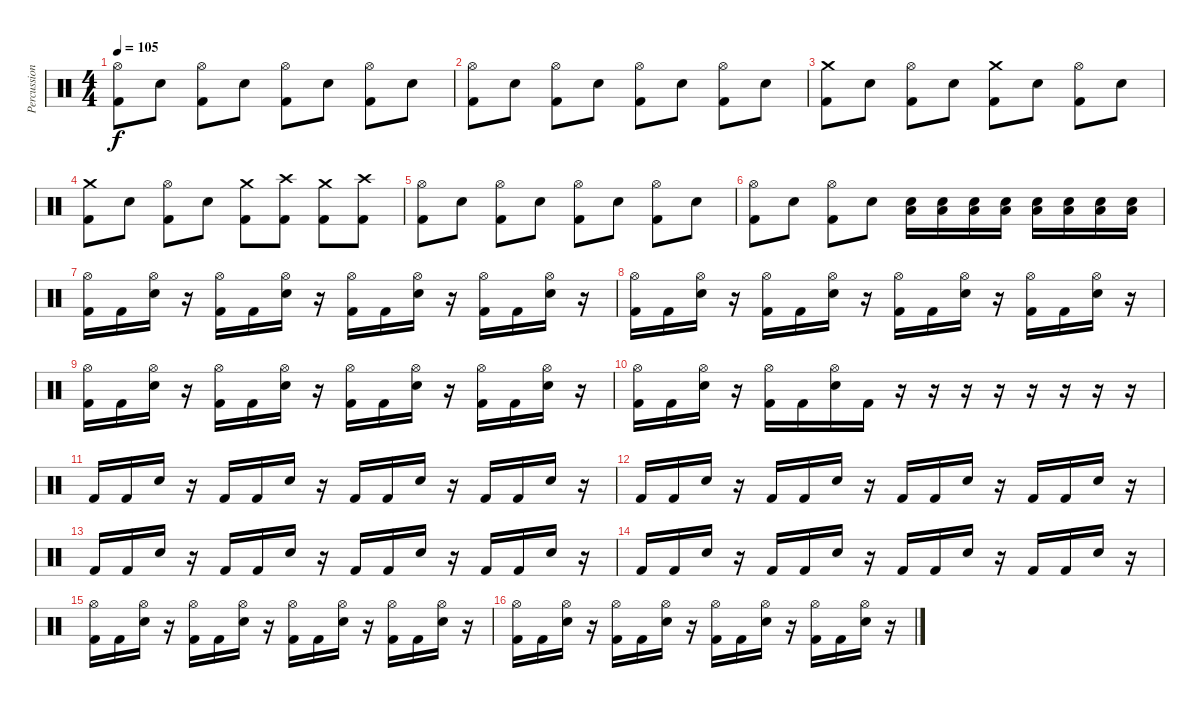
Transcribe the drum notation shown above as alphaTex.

\track ("Percussion" "Percussion") {instrument percussion}
\staff {score}
\articulation defaults
\ts (4 4)
\tempo 105
\clef neutral
\ks c
("Hi-Hat (open)" "Kick (hit) 2").8{dy f} "Snare (hit) 2".8 ("Hi-Hat (open)" "Kick (hit) 2").8 "Snare (hit) 2".8 ("Hi-Hat (open)" "Kick (hit) 2").8 "Snare (hit) 2".8 ("Hi-Hat (open)" "Kick (hit) 2").8 "Snare (hit) 2".8 |
("Hi-Hat (open)" "Kick (hit) 2").8 "Snare (hit) 2".8 ("Hi-Hat (open)" "Kick (hit) 2").8 "Snare (hit) 2".8 ("Hi-Hat (open)" "Kick (hit) 2").8 "Snare (hit) 2".8 ("Hi-Hat (open)" "Kick (hit) 2").8 "Snare (hit) 2".8 |
("Crash medium (hit)" "Kick (hit) 2").8 "Snare (hit) 2".8 ("Hi-Hat (open)" "Kick (hit) 2").8 "Snare (hit) 2".8 ("Crash medium (hit)" "Kick (hit) 2").8 "Snare (hit) 2".8 ("Hi-Hat (open)" "Kick (hit) 2").8 "Snare (hit) 2".8 |
("Crash medium (hit)" "Kick (hit) 2").8 "Snare (hit) 2".8 ("Hi-Hat (open)" "Kick (hit) 2").8 "Snare (hit) 2".8 ("Crash medium (hit)" "Kick (hit) 2").8 ("Crash high (hit)" "Kick (hit) 2").8 ("Crash medium (hit)" "Kick (hit) 2").8 ("Crash high (hit)" "Kick (hit) 2").8 |
("Hi-Hat (open)" "Kick (hit) 2").8 "Snare (hit) 2".8 ("Hi-Hat (open)" "Kick (hit) 2").8 "Snare (hit) 2".8 ("Hi-Hat (open)" "Kick (hit) 2").8 "Snare (hit) 2".8 ("Hi-Hat (open)" "Kick (hit) 2").8 "Snare (hit) 2".8 |
("Hi-Hat (open)" "Kick (hit) 2").8 "Snare (hit) 2".8 ("Hi-Hat (open)" "Kick (hit) 2").8 "Snare (hit) 2".8 ("Low Floor Tom (hit)" "Snare (hit) 2").16 ("Low Floor Tom (hit)" "Snare (hit) 2").16 ("Low Floor Tom (hit)" "Snare (hit) 2").16 ("Low Floor Tom (hit)" "Snare (hit) 2").16 ("Low Floor Tom (hit)" "Snare (hit) 2").16 ("Low Floor Tom (hit)" "Snare (hit) 2").16 ("Low Floor Tom (hit)" "Snare (hit) 2").16 ("Low Floor Tom (hit)" "Snare (hit) 2").16 |
("Hi-Hat (open)" "Kick (hit) 2").16 "Kick (hit) 2".16 ("Hi-Hat (open)" "Snare (hit) 2").16 r.16 ("Hi-Hat (open)" "Kick (hit) 2").16 "Kick (hit) 2".16 ("Hi-Hat (open)" "Snare (hit) 2").16 r.16 ("Hi-Hat (open)" "Kick (hit) 2").16 "Kick (hit) 2".16 ("Hi-Hat (open)" "Snare (hit) 2").16 r.16 ("Hi-Hat (open)" "Kick (hit) 2").16 "Kick (hit) 2".16 ("Hi-Hat (open)" "Snare (hit) 2").16 r.16 |
("Hi-Hat (open)" "Kick (hit) 2").16 "Kick (hit) 2".16 ("Hi-Hat (open)" "Snare (hit) 2").16 r.16 ("Hi-Hat (open)" "Kick (hit) 2").16 "Kick (hit) 2".16 ("Hi-Hat (open)" "Snare (hit) 2").16 r.16 ("Hi-Hat (open)" "Kick (hit) 2").16 "Kick (hit) 2".16 ("Hi-Hat (open)" "Snare (hit) 2").16 r.16 ("Hi-Hat (open)" "Kick (hit) 2").16 "Kick (hit) 2".16 ("Hi-Hat (open)" "Snare (hit) 2").16 r.16 |
("Hi-Hat (open)" "Kick (hit) 2").16 "Kick (hit) 2".16 ("Hi-Hat (open)" "Snare (hit) 2").16 r.16 ("Hi-Hat (open)" "Kick (hit) 2").16 "Kick (hit) 2".16 ("Hi-Hat (open)" "Snare (hit) 2").16 r.16 ("Hi-Hat (open)" "Kick (hit) 2").16 "Kick (hit) 2".16 ("Hi-Hat (open)" "Snare (hit) 2").16 r.16 ("Hi-Hat (open)" "Kick (hit) 2").16 "Kick (hit) 2".16 ("Hi-Hat (open)" "Snare (hit) 2").16 r.16 |
("Hi-Hat (open)" "Kick (hit) 2").16 "Kick (hit) 2".16 ("Hi-Hat (open)" "Snare (hit) 2").16 r.16 ("Hi-Hat (open)" "Kick (hit) 2").16 "Kick (hit) 2".16 ("Hi-Hat (open)" "Snare (hit) 2").16 "Kick (hit) 2".16 r.16 r.16 r.16 r.16 r.16 r.16 r.16 r.16 |
"Kick (hit) 2".16 "Kick (hit) 2".16 "Snare (hit) 2".16 r.16 "Kick (hit) 2".16 "Kick (hit) 2".16 "Snare (hit) 2".16 r.16 "Kick (hit) 2".16 "Kick (hit) 2".16 "Snare (hit) 2".16 r.16 "Kick (hit) 2".16 "Kick (hit) 2".16 "Snare (hit) 2".16 r.16 |
"Kick (hit) 2".16 "Kick (hit) 2".16 "Snare (hit) 2".16 r.16 "Kick (hit) 2".16 "Kick (hit) 2".16 "Snare (hit) 2".16 r.16 "Kick (hit) 2".16 "Kick (hit) 2".16 "Snare (hit) 2".16 r.16 "Kick (hit) 2".16 "Kick (hit) 2".16 "Snare (hit) 2".16 r.16 |
"Kick (hit) 2".16 "Kick (hit) 2".16 "Snare (hit) 2".16 r.16 "Kick (hit) 2".16 "Kick (hit) 2".16 "Snare (hit) 2".16 r.16 "Kick (hit) 2".16 "Kick (hit) 2".16 "Snare (hit) 2".16 r.16 "Kick (hit) 2".16 "Kick (hit) 2".16 "Snare (hit) 2".16 r.16 |
"Kick (hit) 2".16 "Kick (hit) 2".16 "Snare (hit) 2".16 r.16 "Kick (hit) 2".16 "Kick (hit) 2".16 "Snare (hit) 2".16 r.16 "Kick (hit) 2".16 "Kick (hit) 2".16 "Snare (hit) 2".16 r.16 "Kick (hit) 2".16 "Kick (hit) 2".16 "Snare (hit) 2".16 r.16 |
("Hi-Hat (open)" "Kick (hit) 2").16 "Kick (hit) 2".16 ("Hi-Hat (open)" "Snare (hit) 2").16 r.16 ("Hi-Hat (open)" "Kick (hit) 2").16 "Kick (hit) 2".16 ("Hi-Hat (open)" "Snare (hit) 2").16 r.16 ("Hi-Hat (open)" "Kick (hit) 2").16 "Kick (hit) 2".16 ("Hi-Hat (open)" "Snare (hit) 2").16 r.16 ("Hi-Hat (open)" "Kick (hit) 2").16 "Kick (hit) 2".16 ("Hi-Hat (open)" "Snare (hit) 2").16 r.16 |
("Hi-Hat (open)" "Kick (hit) 2").16 "Kick (hit) 2".16 ("Hi-Hat (open)" "Snare (hit) 2").16 r.16 ("Hi-Hat (open)" "Kick (hit) 2").16 "Kick (hit) 2".16 ("Hi-Hat (open)" "Snare (hit) 2").16 r.16 ("Hi-Hat (open)" "Kick (hit) 2").16 "Kick (hit) 2".16 ("Hi-Hat (open)" "Snare (hit) 2").16 r.16 ("Hi-Hat (open)" "Kick (hit) 2").16 "Kick (hit) 2".16 ("Hi-Hat (open)" "Snare (hit) 2").16 r.16
